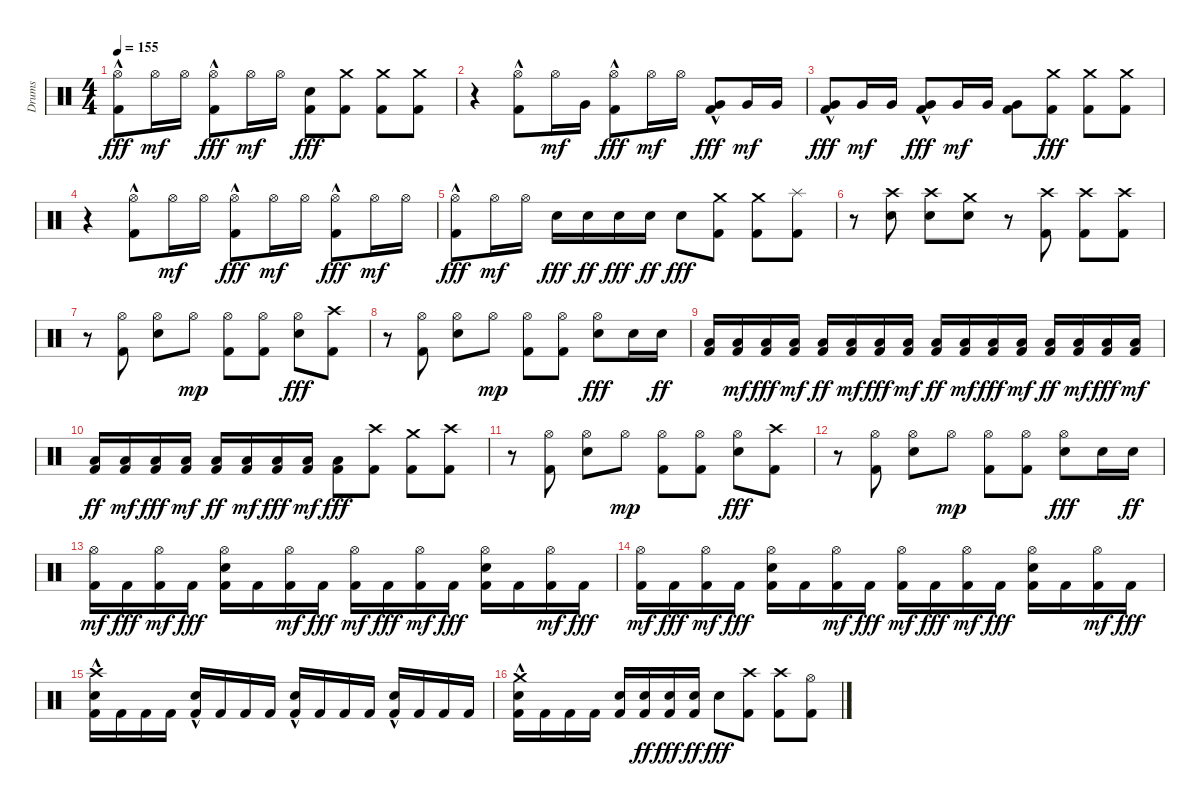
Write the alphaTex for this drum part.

\track ("Drums" "Drums") {instrument percussion}
\staff {score}
\articulation defaults
\ts (4 4)
\tempo 155
\clef neutral
\ks c
("Kick (hit) 2"{hac} "Hi-Hat (open)").8{dy fff} "Hi-Hat (open)".16{dy mf} "Hi-Hat (open)".16 ("Kick (hit) 2"{hac} "Hi-Hat (open)").8{dy fff} "Hi-Hat (open)".16{dy mf} "Hi-Hat (open)".16 ("Kick (hit) 2" "Snare (hit) 2").8{dy fff} ("Kick (hit) 2" "Crash medium (hit)").8 ("Kick (hit) 2" "Crash medium (hit)").8 ("Kick (hit) 2" "Crash medium (hit)").8 |
r.4 ("Kick (hit) 2"{hac} "Hi-Hat (open)").8 "Hi-Hat (open)".16{dy mf} "Very Low Tom (hit)".16 ("Kick (hit) 2"{hac} "Hi-Hat (open)").8{dy fff} "Hi-Hat (open)".16{dy mf} "Hi-Hat (open)".16 ("Kick (hit) 2"{hac} "Very Low Tom (hit)").8{dy fff} "Very Low Tom (hit)".16{dy mf} "Very Low Tom (hit)".16 |
("Kick (hit) 2"{hac} "Very Low Tom (hit)").8{dy fff} "Very Low Tom (hit)".16{dy mf} "Very Low Tom (hit)".16 ("Kick (hit) 2"{hac} "Very Low Tom (hit)").8{dy fff} "Very Low Tom (hit)".16{dy mf} "Very Low Tom (hit)".16 ("Kick (hit) 2" "Very Low Tom (hit)").8 ("Kick (hit) 2" "Crash medium (hit)").8{dy fff} ("Kick (hit) 2" "Crash medium (hit)").8 ("Kick (hit) 2" "Crash medium (hit)").8 |
r.4 ("Kick (hit) 2"{hac} "Hi-Hat (open)").8 "Hi-Hat (open)".16{dy mf} "Hi-Hat (open)".16 ("Kick (hit) 2"{hac} "Hi-Hat (open)").8{dy fff} "Hi-Hat (open)".16{dy mf} "Hi-Hat (open)".16 ("Kick (hit) 2"{hac} "Hi-Hat (open)").8{dy fff} "Hi-Hat (open)".16{dy mf} "Hi-Hat (open)".16 |
("Kick (hit) 2"{hac} "Hi-Hat (open)").8{dy fff} "Hi-Hat (open)".16{dy mf} "Hi-Hat (open)".16 "Snare (hit) 2".16{dy fff} "Snare (hit) 2".16{dy ff} "Snare (hit) 2".16{dy fff} "Snare (hit) 2".16{dy ff} "Snare (hit) 2".8{dy fff} ("Kick (hit) 2" "Crash medium (hit)").8 ("Kick (hit) 2" "Crash medium (hit)").8 ("Kick (hit) 2" "Splash (hit)").8 |
r.8 ("Snare (hit) 2" "Crash high (hit)").8 ("Snare (hit) 2" "Crash high (hit)").8 ("Snare (hit) 2" "Crash medium (hit)").8 r.8 ("Kick (hit) 2" "Crash high (hit)").8 ("Kick (hit) 2" "Crash high (hit)").8 ("Kick (hit) 2" "Crash high (hit)").8 |
r.8 ("Hi-Hat (open)" "Kick (hit) 2").8 ("Snare (hit) 2" "Hi-Hat (open)").8 "Hi-Hat (open)".8{dy mp} ("Kick (hit) 2" "Hi-Hat (open)").8 ("Kick (hit) 2" "Hi-Hat (open)").8 ("Snare (hit) 2" "Hi-Hat (open)").8{dy fff} ("Crash high (hit)" "Kick (hit) 2").8 |
r.8 ("Hi-Hat (open)" "Kick (hit) 2").8 ("Snare (hit) 2" "Hi-Hat (open)").8 "Hi-Hat (open)".8{dy mp} ("Kick (hit) 2" "Hi-Hat (open)").8 ("Kick (hit) 2" "Hi-Hat (open)").8 ("Snare (hit) 2" "Hi-Hat (open)").8{dy fff} "Snare (hit) 2".16 "Snare (hit) 2".16{dy ff} |
("Kick (hit) 2" "Low Tom (hit)").16 ("Kick (hit) 2" "Low Tom (hit)").16{dy mf} ("Kick (hit) 2" "Low Tom (hit)").16{dy fff} ("Kick (hit) 2" "Low Tom (hit)").16{dy mf} ("Kick (hit) 2" "Low Tom (hit)").16{dy ff} ("Kick (hit) 2" "Low Tom (hit)").16{dy mf} ("Kick (hit) 2" "Low Tom (hit)").16{dy fff} ("Kick (hit) 2" "Low Tom (hit)").16{dy mf} ("Kick (hit) 2" "Low Tom (hit)").16{dy ff} ("Kick (hit) 2" "Low Tom (hit)").16{dy mf} ("Kick (hit) 2" "Low Tom (hit)").16{dy fff} ("Kick (hit) 2" "Low Tom (hit)").16{dy mf} ("Kick (hit) 2" "Low Tom (hit)").16{dy ff} ("Kick (hit) 2" "Low Tom (hit)").16{dy mf} ("Kick (hit) 2" "Low Tom (hit)").16{dy fff} ("Kick (hit) 2" "Low Tom (hit)").16{dy mf} |
("Kick (hit) 2" "Low Tom (hit)").16{dy ff} ("Kick (hit) 2" "Low Tom (hit)").16{dy mf} ("Kick (hit) 2" "Low Tom (hit)").16{dy fff} ("Kick (hit) 2" "Low Tom (hit)").16{dy mf} ("Kick (hit) 2" "Low Tom (hit)").16{dy ff} ("Kick (hit) 2" "Low Tom (hit)").16{dy mf} ("Kick (hit) 2" "Low Tom (hit)").16{dy fff} ("Kick (hit) 2" "Low Tom (hit)").16{dy mf} ("Low Tom (hit)" "Kick (hit) 2").8{dy fff} ("Kick (hit) 2" "Crash high (hit)").8 ("Kick (hit) 2" "Crash medium (hit)").8 ("Kick (hit) 2" "Crash high (hit)").8 |
r.8 ("Hi-Hat (open)" "Kick (hit) 2").8 ("Snare (hit) 2" "Hi-Hat (open)").8 "Hi-Hat (open)".8{dy mp} ("Kick (hit) 2" "Hi-Hat (open)").8 ("Kick (hit) 2" "Hi-Hat (open)").8 ("Snare (hit) 2" "Hi-Hat (open)").8{dy fff} ("Crash high (hit)" "Kick (hit) 2").8 |
r.8 ("Hi-Hat (open)" "Kick (hit) 2").8 ("Snare (hit) 2" "Hi-Hat (open)").8 "Hi-Hat (open)".8{dy mp} ("Kick (hit) 2" "Hi-Hat (open)").8 ("Kick (hit) 2" "Hi-Hat (open)").8 ("Snare (hit) 2" "Hi-Hat (open)").8{dy fff} "Snare (hit) 2".16 "Snare (hit) 2".16{dy ff} |
("Kick (hit) 2" "Hi-Hat (open)").16{dy mf} "Kick (hit) 2".16{dy fff} ("Kick (hit) 2" "Hi-Hat (open)").16{dy mf} "Kick (hit) 2".16{dy fff} ("Kick (hit) 2" "Snare (hit) 2" "Hi-Hat (open)").16 "Kick (hit) 2".16 ("Kick (hit) 2" "Hi-Hat (open)").16{dy mf} "Kick (hit) 2".16{dy fff} ("Kick (hit) 2" "Hi-Hat (open)").16{dy mf} "Kick (hit) 2".16{dy fff} ("Kick (hit) 2" "Hi-Hat (open)").16{dy mf} "Kick (hit) 2".16{dy fff} ("Kick (hit) 2" "Snare (hit) 2" "Hi-Hat (open)").16 "Kick (hit) 2".16 ("Kick (hit) 2" "Hi-Hat (open)").16{dy mf} "Kick (hit) 2".16{dy fff} |
("Kick (hit) 2" "Hi-Hat (open)").16{dy mf} "Kick (hit) 2".16{dy fff} ("Kick (hit) 2" "Hi-Hat (open)").16{dy mf} "Kick (hit) 2".16{dy fff} ("Kick (hit) 2" "Snare (hit) 2" "Hi-Hat (open)").16 "Kick (hit) 2".16 ("Kick (hit) 2" "Hi-Hat (open)").16{dy mf} "Kick (hit) 2".16{dy fff} ("Kick (hit) 2" "Hi-Hat (open)").16{dy mf} "Kick (hit) 2".16{dy fff} ("Kick (hit) 2" "Hi-Hat (open)").16{dy mf} "Kick (hit) 2".16{dy fff} ("Kick (hit) 2" "Snare (hit) 2" "Hi-Hat (open)").16 "Kick (hit) 2".16 ("Kick (hit) 2" "Hi-Hat (open)").16{dy mf} "Kick (hit) 2".16{dy fff} |
("Kick (hit) 2" "Snare (hit) 2"{hac} "Crash high (hit)"{hac}).16 "Kick (hit) 2".16 "Kick (hit) 2".16 "Kick (hit) 2".16 ("Kick (hit) 2" "Snare (hit) 2"{hac}).16 "Kick (hit) 2".16 "Kick (hit) 2".16 "Kick (hit) 2".16 ("Kick (hit) 2" "Snare (hit) 2"{hac}).16 "Kick (hit) 2".16 "Kick (hit) 2".16 "Kick (hit) 2".16 ("Kick (hit) 2" "Snare (hit) 2"{hac}).16 "Kick (hit) 2".16 "Kick (hit) 2".16 "Kick (hit) 2".16 |
("Kick (hit) 2" "Snare (hit) 2"{hac} "Crash medium (hit)"{hac}).16 "Kick (hit) 2".16 "Kick (hit) 2".16 "Kick (hit) 2".16 ("Kick (hit) 2" "Snare (hit) 2").16 ("Kick (hit) 2" "Snare (hit) 2").16{dy ff} ("Kick (hit) 2" "Snare (hit) 2").16{dy fff} ("Kick (hit) 2" "Snare (hit) 2").16{dy ff} "Snare (hit) 2".8{dy fff} ("Kick (hit) 2" "Crash high (hit)").8 ("Kick (hit) 2" "Crash high (hit)").8 ("Kick (hit) 2" "Hi-Hat (open)").8
